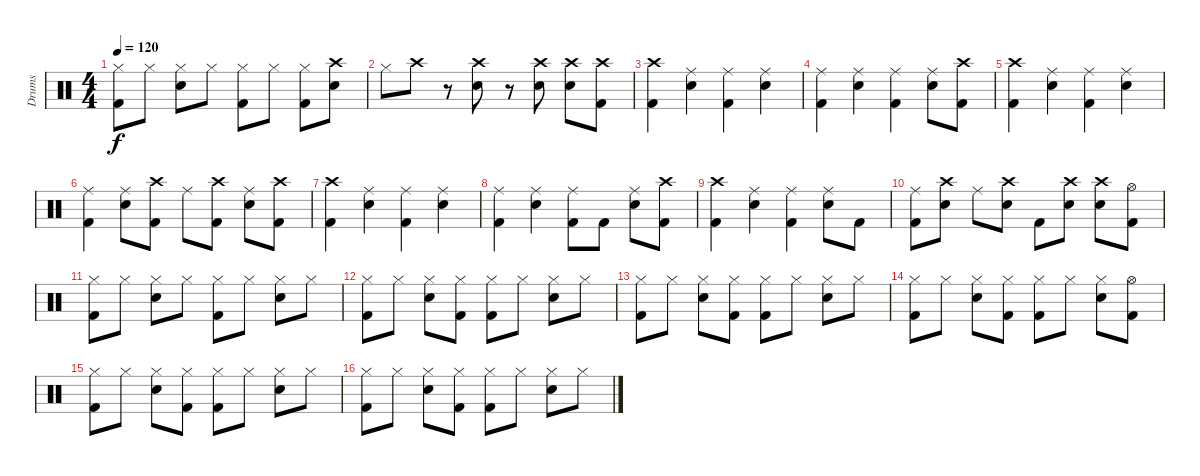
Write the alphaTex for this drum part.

\track ("Drums" "Drums") {instrument percussion}
\staff {score}
\articulation defaults
\ts (4 4)
\tempo 120
\clef neutral
\ks c
("Hi-Hat (closed)" "Kick (hit) 2").8{dy f} "Hi-Hat (closed)".8 ("Hi-Hat (closed)" "Electric Snare (hit)").8 "Hi-Hat (closed)".8 ("Hi-Hat (closed)" "Kick (hit) 2").8 "Hi-Hat (closed)".8 ("Hi-Hat (closed)" "Kick (hit) 2").8 ("Crash high (hit)" "Electric Snare (hit)").8 |
"Hi-Hat (closed)".8 "Crash high (hit)".8 r.8 ("Crash high (hit)" "Electric Snare (hit)").8 r.8 ("Crash high (hit)" "Electric Snare (hit)").8 ("Crash high (hit)" "Electric Snare (hit)").8 ("Crash high (hit)" "Kick (hit) 2").8 |
("Crash high (hit)" "Kick (hit) 2").4 ("Ride (middle)" "Electric Snare (hit)").4 ("Ride (middle)" "Kick (hit) 2").4 ("Ride (middle)" "Electric Snare (hit)").4 |
("Ride (middle)" "Kick (hit) 2").4 ("Ride (middle)" "Electric Snare (hit)").4 ("Ride (middle)" "Kick (hit) 2").4 ("Ride (middle)" "Electric Snare (hit)").8 ("Crash high (hit)" "Kick (hit) 2").8 |
("Crash high (hit)" "Kick (hit) 2").4 ("Ride (middle)" "Electric Snare (hit)").4 ("Ride (middle)" "Kick (hit) 2").4 ("Ride (middle)" "Electric Snare (hit)").4 |
("Ride (middle)" "Kick (hit) 2").4 ("Ride (middle)" "Electric Snare (hit)").8 ("Crash high (hit)" "Kick (hit) 2").8 "Ride (middle)".8 ("Crash high (hit)" "Kick (hit) 2").8 ("Ride (middle)" "Electric Snare (hit)").8 ("Crash high (hit)" "Kick (hit) 2").8 |
("Crash high (hit)" "Kick (hit) 2").4 ("Ride (middle)" "Electric Snare (hit)").4 ("Ride (middle)" "Kick (hit) 2").4 ("Ride (middle)" "Electric Snare (hit)").4 |
("Ride (middle)" "Kick (hit) 2").4 ("Ride (middle)" "Electric Snare (hit)").4 ("Ride (middle)" "Kick (hit) 2").8 "Kick (hit) 2".8 ("Ride (middle)" "Electric Snare (hit)").8 ("Crash high (hit)" "Kick (hit) 2").8 |
("Crash high (hit)" "Kick (hit) 2").4 ("Ride (middle)" "Electric Snare (hit)").4 ("Ride (middle)" "Kick (hit) 2").4 ("Ride (middle)" "Electric Snare (hit)").8 "Kick (hit) 2".8 |
("Ride (middle)" "Kick (hit) 2").8 ("Crash high (hit)" "Electric Snare (hit)").8 "Ride (middle)".8 ("Crash high (hit)" "Electric Snare (hit)").8 "Kick (hit) 2".8 ("Crash high (hit)" "Electric Snare (hit)").8 ("Crash high (hit)" "Electric Snare (hit)").8 ("Hi-Hat (open)" "Kick (hit) 2").8 |
("Hi-Hat (closed)" "Kick (hit) 2").8 "Hi-Hat (closed)".8 ("Hi-Hat (closed)" "Electric Snare (hit)").8 "Hi-Hat (closed)".8 ("Hi-Hat (closed)" "Kick (hit) 2").8 "Hi-Hat (closed)".8 ("Hi-Hat (closed)" "Electric Snare (hit)").8 "Hi-Hat (closed)".8 |
("Hi-Hat (closed)" "Kick (hit) 2").8 "Hi-Hat (closed)".8 ("Hi-Hat (closed)" "Electric Snare (hit)").8 ("Hi-Hat (closed)" "Kick (hit) 2").8 ("Hi-Hat (closed)" "Kick (hit) 2").8 "Hi-Hat (closed)".8 ("Hi-Hat (closed)" "Electric Snare (hit)").8 "Hi-Hat (closed)".8 |
("Hi-Hat (closed)" "Kick (hit) 2").8 "Hi-Hat (closed)".8 ("Hi-Hat (closed)" "Electric Snare (hit)").8 ("Hi-Hat (closed)" "Kick (hit) 2").8 ("Hi-Hat (closed)" "Kick (hit) 2").8 "Hi-Hat (closed)".8 ("Hi-Hat (closed)" "Electric Snare (hit)").8 "Hi-Hat (closed)".8 |
("Hi-Hat (closed)" "Kick (hit) 2").8 "Hi-Hat (closed)".8 ("Hi-Hat (closed)" "Electric Snare (hit)").8 ("Hi-Hat (closed)" "Kick (hit) 2").8 ("Hi-Hat (closed)" "Kick (hit) 2").8 "Hi-Hat (closed)".8 ("Hi-Hat (closed)" "Electric Snare (hit)").8 ("Hi-Hat (open)" "Kick (hit) 2").8 |
("Hi-Hat (closed)" "Kick (hit) 2").8 "Hi-Hat (closed)".8 ("Hi-Hat (closed)" "Electric Snare (hit)").8 ("Hi-Hat (closed)" "Kick (hit) 2").8 ("Hi-Hat (closed)" "Kick (hit) 2").8 "Hi-Hat (closed)".8 ("Hi-Hat (closed)" "Electric Snare (hit)").8 "Hi-Hat (closed)".8 |
("Hi-Hat (closed)" "Kick (hit) 2").8 "Hi-Hat (closed)".8 ("Hi-Hat (closed)" "Electric Snare (hit)").8 ("Hi-Hat (closed)" "Kick (hit) 2").8 ("Hi-Hat (closed)" "Kick (hit) 2").8 "Hi-Hat (closed)".8 ("Hi-Hat (closed)" "Electric Snare (hit)").8 "Hi-Hat (closed)".8
